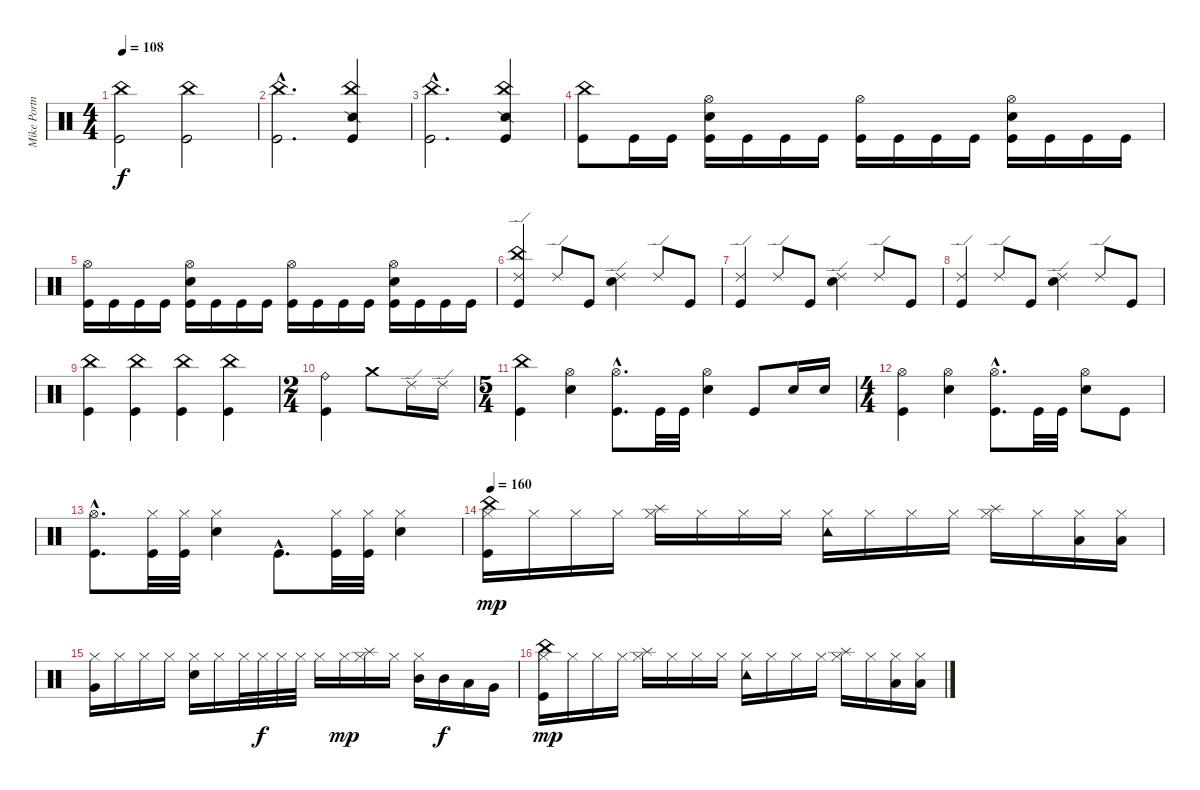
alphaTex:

\track ("Mike Portnoy Drums" "Mike Portn") {instrument percussion}
\staff {score}
\articulation defaults
\ts (4 4)
\tempo 108
\clef neutral
\ks c
("Kick (hit)" "China (hit)").2{dy f} ("Kick (hit)" "China (hit)").2 |
("Kick (hit)"{hac} "China (hit)"{hac}).2{d} ("Kick (hit)" "China (hit)" "Snare (side stick) 2").4 |
("Kick (hit)"{hac} "China (hit)"{hac}).2{d} ("Kick (hit)" "China (hit)" "Snare (side stick) 2").4 |
("Kick (hit)" "China (hit)").8 "Kick (hit)".16 "Kick (hit)".16 ("Kick (hit)" "Snare (hit) 2" "Hi-Hat (open)").16 "Kick (hit)".16 "Kick (hit)".16 "Kick (hit)".16 ("Kick (hit)" "Hi-Hat (open)").16 "Kick (hit)".16 "Kick (hit)".16 "Kick (hit)".16 ("Kick (hit)" "Snare (hit) 2" "Hi-Hat (open)").16 "Kick (hit)".16 "Kick (hit)".16 "Kick (hit)".16 |
("Kick (hit)" "Hi-Hat (open)").16 "Kick (hit)".16 "Kick (hit)".16 "Kick (hit)".16 ("Kick (hit)" "Snare (hit) 2" "Hi-Hat (open)").16 "Kick (hit)".16 "Kick (hit)".16 "Kick (hit)".16 ("Kick (hit)" "Hi-Hat (open)").16 "Kick (hit)".16 "Kick (hit)".16 "Kick (hit)".16 ("Kick (hit)" "Snare (hit) 2" "Hi-Hat (open)").16 "Kick (hit)".16 "Kick (hit)".16 "Kick (hit)".16 |
("Kick (hit)" "China (hit)" "Ride (edge) 2").4 "Ride (edge) 2".8 "Kick (hit)".8 ("Snare (hit) 2" "Ride (edge) 2").4 "Ride (edge) 2".8 "Kick (hit)".8 |
("Kick (hit)" "Ride (edge) 2").4 "Ride (edge) 2".8 "Kick (hit)".8 ("Snare (hit) 2" "Ride (edge) 2").4 "Ride (edge) 2".8 "Kick (hit)".8 |
("Kick (hit)" "Ride (edge) 2").4 "Ride (edge) 2".8 "Kick (hit)".8 ("Snare (hit) 2" "Ride (edge) 2").4 "Ride (edge) 2".8 "Kick (hit)".8 |
("Kick (hit)" "China (hit)").4 ("Kick (hit)" "China (hit)").4 ("Kick (hit)" "China (hit)").4 ("Kick (hit)" "China (hit)").4 |
\ts (2 4)
("Kick (hit)" "Ride (bell)").4 "Crash medium (hit)".8 "Ride (edge) 2".16 "Ride (edge) 2".16 |
\ts (5 4)
("Kick (hit)" "China (hit)").4 ("Snare (hit) 2" "Hi-Hat (open)").4 ("Kick (hit)"{hac} "Hi-Hat (open)"{hac}).8{d} "Kick (hit)".32 "Kick (hit)".32 ("Snare (hit) 2" "Hi-Hat (open)").4 "Kick (hit)".8 "Snare (hit) 2".16 "Snare (hit) 2".16 |
\ts (4 4)
("Kick (hit)" "Hi-Hat (open)").4 ("Snare (hit) 2" "Hi-Hat (open)").4 ("Kick (hit)"{hac} "Hi-Hat (open)"{hac}).8{d} "Kick (hit)".32 "Kick (hit)".32 ("Snare (hit) 2" "Hi-Hat (open)").8 "Kick (hit)".8 |
("Kick (hit)"{hac} "Hi-Hat (open)"{hac}).8{d} ("Kick (hit)" "Hi-Hat (closed)").32 ("Kick (hit)" "Hi-Hat (closed)").32 ("Snare (hit) 2" "Hi-Hat (closed)").4 "Kick (hit)"{hac}.8{d} ("Kick (hit)" "Hi-Hat (closed)").32 ("Kick (hit)" "Hi-Hat (closed)").32 ("Snare (hit) 2" "Hi-Hat (closed)").4 |
\tempo 160
("Hi-Hat (closed)" "Kick (hit)" "China (hit)").16{dy mp} "Hi-Hat (closed)".16 "Hi-Hat (closed)".16 "Hi-Hat (closed)".16 ("Hi-Hat (closed)" "Splash (hit)").16 "Hi-Hat (closed)".16 "Hi-Hat (closed)".16 "Hi-Hat (closed)".16 ("Hi-Hat (closed)" "Tambourine (hit)").16 "Hi-Hat (closed)".16 "Hi-Hat (closed)".16 "Hi-Hat (closed)".16 ("Hi-Hat (closed)" "Splash (hit)").16 "Hi-Hat (closed)".16 ("Hi-Hat (closed)" "Low Tom (hit)").16 ("Hi-Hat (closed)" "Low Tom (hit)").16 |
("Hi-Hat (closed)" "Very Low Tom (hit)").16 "Hi-Hat (closed)".16 "Hi-Hat (closed)".16 "Hi-Hat (closed)".16 ("Hi-Hat (closed)" "Snare (hit) 2").16 "Hi-Hat (closed)".16 "Hi-Hat (closed)".32 "Hi-Hat (closed)".32{dy f} "Hi-Hat (closed)".32 "Hi-Hat (closed)".32 "Hi-Hat (closed)".16 "Hi-Hat (closed)".16{dy mp} ("Hi-Hat (closed)" "Splash (hit)").16 "Hi-Hat (closed)".16 ("Hi-Hat (closed)" "Mid Tom (hit)").16 "Mid Tom (hit)".16{dy f} "Low Tom (hit)".16 "Very Low Tom (hit)".16 |
("Hi-Hat (closed)" "Kick (hit)" "China (hit)").16{dy mp} "Hi-Hat (closed)".16 "Hi-Hat (closed)".16 "Hi-Hat (closed)".16 ("Hi-Hat (closed)" "Splash (hit)").16 "Hi-Hat (closed)".16 "Hi-Hat (closed)".16 "Hi-Hat (closed)".16 ("Hi-Hat (closed)" "Tambourine (hit)").16 "Hi-Hat (closed)".16 "Hi-Hat (closed)".16 "Hi-Hat (closed)".16 ("Hi-Hat (closed)" "Splash (hit)").16 "Hi-Hat (closed)".16 ("Hi-Hat (closed)" "Low Tom (hit)").16 ("Hi-Hat (closed)" "Low Tom (hit)").16
